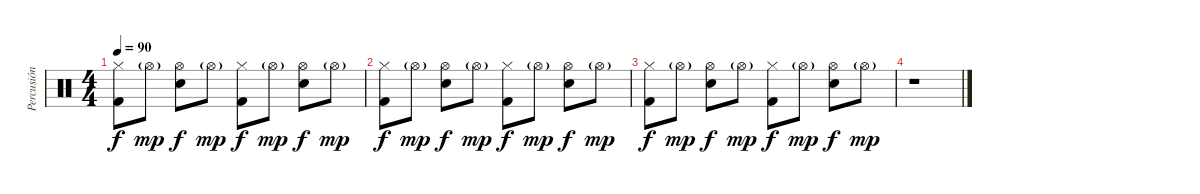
\track ("Percusión" "Percusión") {instrument percussion}
\staff {score}
\articulation defaults
\ts (4 4)
\tempo 90
\clef neutral
\ks c
("Hi-Hat (closed)" "Kick (hit) 2").8{dy f} "Hi-Hat (open)"{g}.8{dy mp} ("Hi-Hat (open)" "Snare (hit) 2").8{dy f} "Hi-Hat (open)"{g}.8{dy mp} ("Hi-Hat (closed)" "Kick (hit) 2").8{dy f} "Hi-Hat (open)"{g}.8{dy mp} ("Hi-Hat (open)" "Snare (hit) 2").8{dy f} "Hi-Hat (open)"{g}.8{dy mp} |
("Hi-Hat (closed)" "Kick (hit) 2").8{dy f} "Hi-Hat (open)"{g}.8{dy mp} ("Hi-Hat (open)" "Snare (hit) 2").8{dy f} "Hi-Hat (open)"{g}.8{dy mp} ("Hi-Hat (closed)" "Kick (hit) 2").8{dy f} "Hi-Hat (open)"{g}.8{dy mp} ("Hi-Hat (open)" "Snare (hit) 2").8{dy f} "Hi-Hat (open)"{g}.8{dy mp} |
("Hi-Hat (closed)" "Kick (hit) 2").8{dy f} "Hi-Hat (open)"{g}.8{dy mp} ("Hi-Hat (open)" "Snare (hit) 2").8{dy f} "Hi-Hat (open)"{g}.8{dy mp} ("Hi-Hat (closed)" "Kick (hit) 2").8{dy f} "Hi-Hat (open)"{g}.8{dy mp} ("Hi-Hat (open)" "Snare (hit) 2").8{dy f} "Hi-Hat (open)"{g}.8{dy mp} |
r.1
